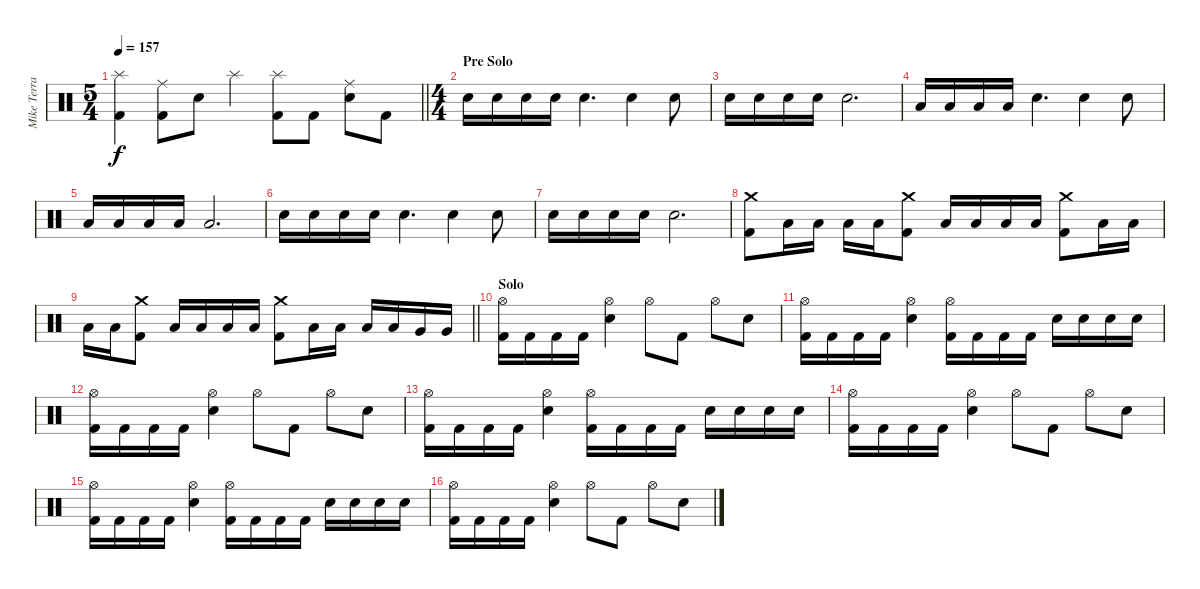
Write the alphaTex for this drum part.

\track ("Mike Terrana" "Mike Terra") {instrument percussion}
\staff {score}
\articulation defaults
\ts (5 4)
\tempo 157
\clef neutral
\barLineRight lightlight
\ks c
("Splash (hit)" "Kick (hit) 2").4{dy f} ("Ride (middle)" "Kick (hit) 2").8 "Snare (hit) 2".8 "Splash (hit)".4 ("Splash (hit)" "Kick (hit) 2").8 "Kick (hit) 2".8 ("Ride (middle)" "Snare (hit) 2").8 "Kick (hit) 2".8 |
\ts (4 4)
\section ("" "Pre Solo")
"Snare (hit) 2".16 "Snare (hit) 2".16 "Snare (hit) 2".16 "Snare (hit) 2".16 "Snare (hit) 2".4{d} "Snare (hit) 2".4 "Snare (hit) 2".8 |
"Snare (hit) 2".16 "Snare (hit) 2".16 "Snare (hit) 2".16 "Snare (hit) 2".16 "Snare (hit) 2".2{d} |
"Low Tom (hit)".16 "Low Tom (hit)".16 "Low Tom (hit)".16 "Low Tom (hit)".16 "Snare (hit) 2".4{d} "Snare (hit) 2".4 "Snare (hit) 2".8 |
"Low Tom (hit)".16 "Low Tom (hit)".16 "Low Tom (hit)".16 "Low Tom (hit)".16 "Low Tom (hit)".2{d} |
"Snare (hit) 2".16 "Snare (hit) 2".16 "Snare (hit) 2".16 "Snare (hit) 2".16 "Snare (hit) 2".4{d} "Snare (hit) 2".4 "Snare (hit) 2".8 |
"Snare (hit) 2".16 "Snare (hit) 2".16 "Snare (hit) 2".16 "Snare (hit) 2".16 "Snare (hit) 2".2{d} |
("Crash medium (hit)" "Kick (hit) 2").8 "Low Tom (hit)".16 "Low Tom (hit)".16 "Low Tom (hit)".16 "Low Tom (hit)".16 ("Crash medium (hit)" "Kick (hit) 2").8 "Low Tom (hit)".16 "Low Tom (hit)".16 "Low Tom (hit)".16 "Low Tom (hit)".16 ("Crash medium (hit)" "Kick (hit) 2").8 "Low Tom (hit)".16 "Low Tom (hit)".16 |
\barLineRight lightlight "Low Tom (hit)".16 "Low Tom (hit)".16
("Crash medium (hit)" "Kick (hit) 2").8 "Low Tom (hit)".16 "Low Tom (hit)".16 "Low Tom (hit)".16 "Low Tom (hit)".16 ("Crash medium (hit)" "Kick (hit) 2").8 "Low Tom (hit)".16 "Low Tom (hit)".16 "Low Tom (hit)".16 "Low Tom (hit)".16 "Very Low Tom (hit)".16 "Very Low Tom (hit)".16 |
\section ("" "Solo")
("Hi-Hat (open)" "Kick (hit) 2").16 "Kick (hit) 2".16 "Kick (hit) 2".16 "Kick (hit) 2".16 ("Hi-Hat (open)" "Snare (hit) 2").4 "Hi-Hat (open)".8 "Kick (hit) 2".8 "Hi-Hat (open)".8 "Snare (hit) 2".8 |
("Hi-Hat (open)" "Kick (hit) 2").16 "Kick (hit) 2".16 "Kick (hit) 2".16 "Kick (hit) 2".16 ("Hi-Hat (open)" "Snare (hit) 2").4 ("Hi-Hat (open)" "Kick (hit) 2").16 "Kick (hit) 2".16 "Kick (hit) 2".16 "Kick (hit) 2".16 "Snare (hit) 2".16 "Snare (hit) 2".16 "Snare (hit) 2".16 "Snare (hit) 2".16 |
("Hi-Hat (open)" "Kick (hit) 2").16 "Kick (hit) 2".16 "Kick (hit) 2".16 "Kick (hit) 2".16 ("Hi-Hat (open)" "Snare (hit) 2").4 "Hi-Hat (open)".8 "Kick (hit) 2".8 "Hi-Hat (open)".8 "Snare (hit) 2".8 |
("Hi-Hat (open)" "Kick (hit) 2").16 "Kick (hit) 2".16 "Kick (hit) 2".16 "Kick (hit) 2".16 ("Hi-Hat (open)" "Snare (hit) 2").4 ("Hi-Hat (open)" "Kick (hit) 2").16 "Kick (hit) 2".16 "Kick (hit) 2".16 "Kick (hit) 2".16 "Snare (hit) 2".16 "Snare (hit) 2".16 "Snare (hit) 2".16 "Snare (hit) 2".16 |
("Hi-Hat (open)" "Kick (hit) 2").16 "Kick (hit) 2".16 "Kick (hit) 2".16 "Kick (hit) 2".16 ("Hi-Hat (open)" "Snare (hit) 2").4 "Hi-Hat (open)".8 "Kick (hit) 2".8 "Hi-Hat (open)".8 "Snare (hit) 2".8 |
("Hi-Hat (open)" "Kick (hit) 2").16 "Kick (hit) 2".16 "Kick (hit) 2".16 "Kick (hit) 2".16 ("Hi-Hat (open)" "Snare (hit) 2").4 ("Hi-Hat (open)" "Kick (hit) 2").16 "Kick (hit) 2".16 "Kick (hit) 2".16 "Kick (hit) 2".16 "Snare (hit) 2".16 "Snare (hit) 2".16 "Snare (hit) 2".16 "Snare (hit) 2".16 |
("Hi-Hat (open)" "Kick (hit) 2").16 "Kick (hit) 2".16 "Kick (hit) 2".16 "Kick (hit) 2".16 ("Hi-Hat (open)" "Snare (hit) 2").4 "Hi-Hat (open)".8 "Kick (hit) 2".8 "Hi-Hat (open)".8 "Snare (hit) 2".8
